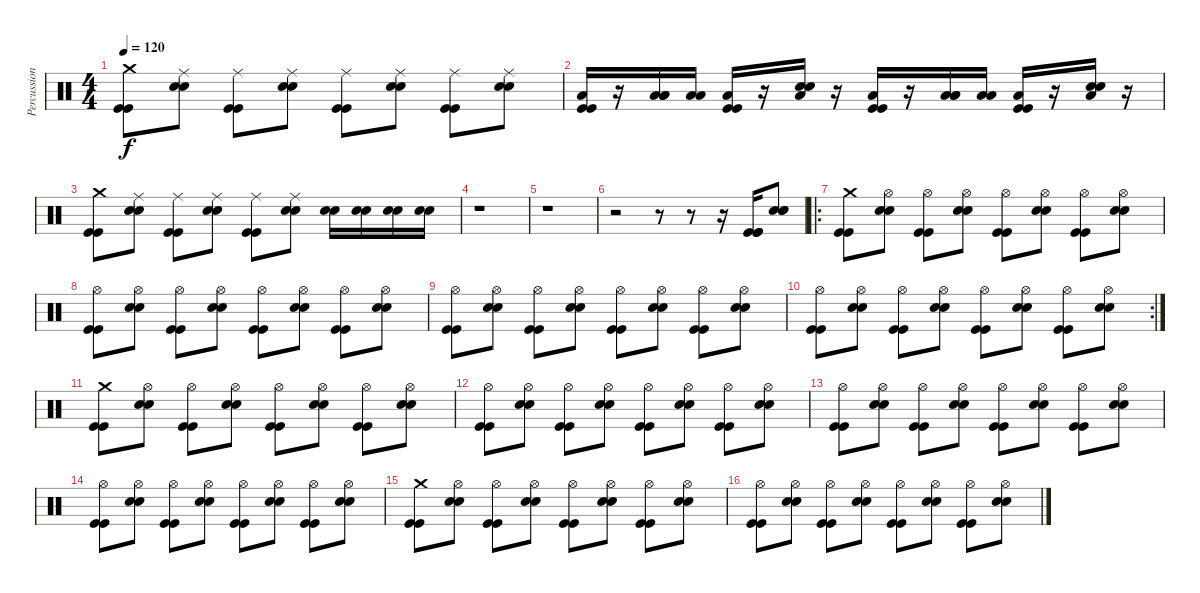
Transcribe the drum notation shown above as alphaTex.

\track ("Percussion" "Percussion") {instrument percussion}
\staff {score}
\articulation defaults
\ts (4 4)
\tempo 120
\clef neutral
\ks c
("Crash medium (hit)" "Kick (hit)" "Kick (hit)").8{dy f} ("Electric Snare (hit)" "Electric Snare (hit)" "Ride (middle)").8 ("Kick (hit)" "Kick (hit)" "Ride (middle)").8 ("Electric Snare (hit)" "Electric Snare (hit)" "Ride (middle)").8 ("Kick (hit)" "Kick (hit)" "Ride (middle)").8 ("Electric Snare (hit)" "Electric Snare (hit)" "Ride (middle)").8 ("Kick (hit)" "Kick (hit)" "Ride (middle)").8 ("Electric Snare (hit)" "Electric Snare (hit)" "Ride (middle)").8 |
("Kick (hit)" "Kick (hit)" "Low Floor Tom (hit)").16 r.16 ("Low Tom (hit)" "Low Floor Tom (hit)" "Low Floor Tom (hit)").16 ("Low Tom (hit)" "Low Floor Tom (hit)").16 ("Kick (hit)" "Kick (hit)" "Low Floor Tom (hit)").16 r.16 ("Electric Snare (hit)" "Electric Snare (hit)" "Low Floor Tom (hit)").16 r.16 ("Kick (hit)" "Kick (hit)" "Low Floor Tom (hit)").16 r.16 ("Low Tom (hit)" "Low Floor Tom (hit)" "Low Floor Tom (hit)").16 ("Low Tom (hit)" "Low Floor Tom (hit)").16 ("Kick (hit)" "Kick (hit)" "Low Floor Tom (hit)").16 r.16 ("Electric Snare (hit)" "Electric Snare (hit)" "Low Floor Tom (hit)").16 r.16 |
("Crash medium (hit)" "Kick (hit)" "Kick (hit)").8 ("Electric Snare (hit)" "Electric Snare (hit)" "Ride (middle)").8 ("Kick (hit)" "Kick (hit)" "Ride (middle)").8 ("Electric Snare (hit)" "Electric Snare (hit)" "Ride (middle)").8 ("Kick (hit)" "Kick (hit)" "Ride (middle)").8 ("Electric Snare (hit)" "Electric Snare (hit)" "Ride (middle)").8 ("Electric Snare (hit)" "Electric Snare (hit)").16 ("Electric Snare (hit)" "Electric Snare (hit)").16 ("Electric Snare (hit)" "Electric Snare (hit)").16 ("Electric Snare (hit)" "Electric Snare (hit)").16 |
r.1 |
r.1 |
r.2 r.8 r.8 r.16 ("Kick (hit)" "Kick (hit)" "Kick (hit)").16 ("Electric Snare (hit)" "Electric Snare (hit)" "Electric Snare (hit)").8 |
\ro
("Crash medium (hit)" "Kick (hit)" "Kick (hit)").8 ("Electric Snare (hit)" "Electric Snare (hit)" "Hi-Hat (open)").8 ("Kick (hit)" "Kick (hit)" "Hi-Hat (open)").8 ("Electric Snare (hit)" "Electric Snare (hit)" "Hi-Hat (open)").8 ("Kick (hit)" "Kick (hit)" "Hi-Hat (open)").8 ("Electric Snare (hit)" "Electric Snare (hit)" "Hi-Hat (open)").8 ("Kick (hit)" "Kick (hit)" "Hi-Hat (open)").8 ("Electric Snare (hit)" "Electric Snare (hit)" "Hi-Hat (open)").8 |
("Kick (hit)" "Kick (hit)" "Hi-Hat (open)").8 ("Electric Snare (hit)" "Electric Snare (hit)" "Hi-Hat (open)").8 ("Kick (hit)" "Kick (hit)" "Hi-Hat (open)").8 ("Electric Snare (hit)" "Electric Snare (hit)" "Hi-Hat (open)").8 ("Kick (hit)" "Kick (hit)" "Hi-Hat (open)").8 ("Electric Snare (hit)" "Electric Snare (hit)" "Hi-Hat (open)").8 ("Kick (hit)" "Kick (hit)" "Hi-Hat (open)").8 ("Electric Snare (hit)" "Electric Snare (hit)" "Hi-Hat (open)").8 |
("Kick (hit)" "Kick (hit)" "Hi-Hat (open)").8 ("Electric Snare (hit)" "Electric Snare (hit)" "Hi-Hat (open)").8 ("Kick (hit)" "Kick (hit)" "Hi-Hat (open)").8 ("Electric Snare (hit)" "Electric Snare (hit)" "Hi-Hat (open)").8 ("Kick (hit)" "Kick (hit)" "Hi-Hat (open)").8 ("Electric Snare (hit)" "Electric Snare (hit)" "Hi-Hat (open)").8 ("Kick (hit)" "Kick (hit)" "Hi-Hat (open)").8 ("Electric Snare (hit)" "Electric Snare (hit)" "Hi-Hat (open)").8 |
\rc 2
("Kick (hit)" "Kick (hit)" "Hi-Hat (open)").8 ("Electric Snare (hit)" "Electric Snare (hit)" "Hi-Hat (open)").8 ("Kick (hit)" "Kick (hit)" "Hi-Hat (open)").8 ("Electric Snare (hit)" "Electric Snare (hit)" "Hi-Hat (open)").8 ("Kick (hit)" "Kick (hit)" "Hi-Hat (open)").8 ("Electric Snare (hit)" "Electric Snare (hit)" "Hi-Hat (open)").8 ("Kick (hit)" "Kick (hit)" "Hi-Hat (open)").8 ("Electric Snare (hit)" "Electric Snare (hit)" "Hi-Hat (open)").8 |
("Crash medium (hit)" "Kick (hit)" "Kick (hit)").8 ("Electric Snare (hit)" "Electric Snare (hit)" "Hi-Hat (open)").8 ("Kick (hit)" "Kick (hit)" "Hi-Hat (open)").8 ("Electric Snare (hit)" "Electric Snare (hit)" "Hi-Hat (open)").8 ("Kick (hit)" "Kick (hit)" "Hi-Hat (open)").8 ("Electric Snare (hit)" "Electric Snare (hit)" "Hi-Hat (open)").8 ("Kick (hit)" "Kick (hit)" "Hi-Hat (open)").8 ("Electric Snare (hit)" "Electric Snare (hit)" "Hi-Hat (open)").8 |
("Kick (hit)" "Kick (hit)" "Hi-Hat (open)").8 ("Electric Snare (hit)" "Electric Snare (hit)" "Hi-Hat (open)").8 ("Kick (hit)" "Kick (hit)" "Hi-Hat (open)").8 ("Electric Snare (hit)" "Electric Snare (hit)" "Hi-Hat (open)").8 ("Kick (hit)" "Kick (hit)" "Hi-Hat (open)").8 ("Electric Snare (hit)" "Electric Snare (hit)" "Hi-Hat (open)").8 ("Kick (hit)" "Kick (hit)" "Hi-Hat (open)").8 ("Electric Snare (hit)" "Electric Snare (hit)" "Hi-Hat (open)").8 |
("Kick (hit)" "Kick (hit)" "Hi-Hat (open)").8 ("Electric Snare (hit)" "Electric Snare (hit)" "Hi-Hat (open)").8 ("Kick (hit)" "Kick (hit)" "Hi-Hat (open)").8 ("Electric Snare (hit)" "Electric Snare (hit)" "Hi-Hat (open)").8 ("Kick (hit)" "Kick (hit)" "Hi-Hat (open)").8 ("Electric Snare (hit)" "Electric Snare (hit)" "Hi-Hat (open)").8 ("Kick (hit)" "Kick (hit)" "Hi-Hat (open)").8 ("Electric Snare (hit)" "Electric Snare (hit)" "Hi-Hat (open)").8 |
("Kick (hit)" "Kick (hit)" "Hi-Hat (open)").8 ("Electric Snare (hit)" "Electric Snare (hit)" "Hi-Hat (open)").8 ("Kick (hit)" "Kick (hit)" "Hi-Hat (open)").8 ("Electric Snare (hit)" "Electric Snare (hit)" "Hi-Hat (open)").8 ("Kick (hit)" "Kick (hit)" "Hi-Hat (open)").8 ("Electric Snare (hit)" "Electric Snare (hit)" "Hi-Hat (open)").8 ("Kick (hit)" "Kick (hit)" "Hi-Hat (open)").8 ("Electric Snare (hit)" "Electric Snare (hit)" "Hi-Hat (open)").8 |
("Crash medium (hit)" "Kick (hit)" "Kick (hit)").8 ("Electric Snare (hit)" "Electric Snare (hit)" "Hi-Hat (open)").8 ("Kick (hit)" "Kick (hit)" "Hi-Hat (open)").8 ("Electric Snare (hit)" "Electric Snare (hit)" "Hi-Hat (open)").8 ("Kick (hit)" "Kick (hit)" "Hi-Hat (open)").8 ("Electric Snare (hit)" "Electric Snare (hit)" "Hi-Hat (open)").8 ("Kick (hit)" "Kick (hit)" "Hi-Hat (open)").8 ("Electric Snare (hit)" "Electric Snare (hit)" "Hi-Hat (open)").8 |
("Kick (hit)" "Kick (hit)" "Hi-Hat (open)").8 ("Electric Snare (hit)" "Electric Snare (hit)" "Hi-Hat (open)").8 ("Kick (hit)" "Kick (hit)" "Hi-Hat (open)").8 ("Electric Snare (hit)" "Electric Snare (hit)" "Hi-Hat (open)").8 ("Kick (hit)" "Kick (hit)" "Hi-Hat (open)").8 ("Electric Snare (hit)" "Electric Snare (hit)" "Hi-Hat (open)").8 ("Kick (hit)" "Kick (hit)" "Hi-Hat (open)").8 ("Electric Snare (hit)" "Electric Snare (hit)" "Hi-Hat (open)").8
